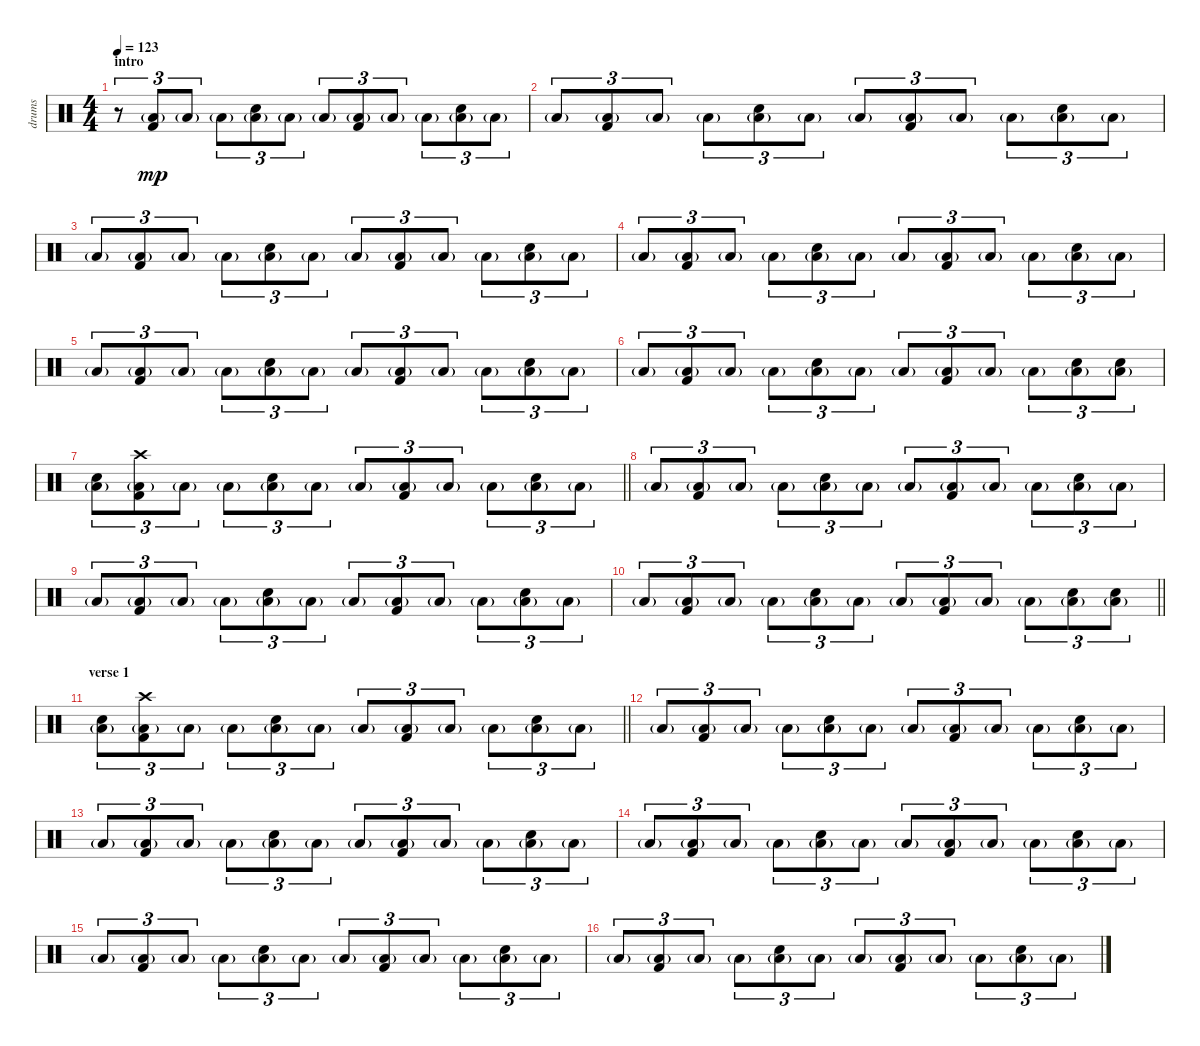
\track ("drums" "drums") {instrument percussion}
\staff {score}
\articulation defaults
\ts (4 4)
\section ("" "intro")
\tempo 123
\clef neutral
\ks c
r.8{tu (3 2) dy mp} ("Low Floor Tom (hit)"{g} "Kick (hit) 2").8{tu (3 2)} "Low Floor Tom (hit)"{g}.8{tu (3 2)} "Low Floor Tom (hit)"{g}.8{tu (3 2)} ("Low Floor Tom (hit)"{g} "Electric Snare (hit)").8{tu (3 2)} "Low Floor Tom (hit)"{g}.8{tu (3 2)} "Low Floor Tom (hit)"{g}.8{tu (3 2)} ("Low Floor Tom (hit)"{g} "Kick (hit) 2").8{tu (3 2)} "Low Floor Tom (hit)"{g}.8{tu (3 2)} "Low Floor Tom (hit)"{g}.8{tu (3 2)} ("Low Floor Tom (hit)"{g} "Electric Snare (hit)").8{tu (3 2)} "Low Floor Tom (hit)"{g}.8{tu (3 2)} |
"Low Floor Tom (hit)"{g}.8{tu (3 2)} ("Low Floor Tom (hit)"{g} "Kick (hit) 2").8{tu (3 2)} "Low Floor Tom (hit)"{g}.8{tu (3 2)} "Low Floor Tom (hit)"{g}.8{tu (3 2)} ("Low Floor Tom (hit)"{g} "Electric Snare (hit)").8{tu (3 2)} "Low Floor Tom (hit)"{g}.8{tu (3 2)} "Low Floor Tom (hit)"{g}.8{tu (3 2)} ("Low Floor Tom (hit)"{g} "Kick (hit) 2").8{tu (3 2)} "Low Floor Tom (hit)"{g}.8{tu (3 2)} "Low Floor Tom (hit)"{g}.8{tu (3 2)} ("Low Floor Tom (hit)"{g} "Electric Snare (hit)").8{tu (3 2)} "Low Floor Tom (hit)"{g}.8{tu (3 2)} |
"Low Floor Tom (hit)"{g}.8{tu (3 2)} ("Low Floor Tom (hit)"{g} "Kick (hit) 2").8{tu (3 2)} "Low Floor Tom (hit)"{g}.8{tu (3 2)} "Low Floor Tom (hit)"{g}.8{tu (3 2)} ("Low Floor Tom (hit)"{g} "Electric Snare (hit)").8{tu (3 2)} "Low Floor Tom (hit)"{g}.8{tu (3 2)} "Low Floor Tom (hit)"{g}.8{tu (3 2)} ("Low Floor Tom (hit)"{g} "Kick (hit) 2").8{tu (3 2)} "Low Floor Tom (hit)"{g}.8{tu (3 2)} "Low Floor Tom (hit)"{g}.8{tu (3 2)} ("Low Floor Tom (hit)"{g} "Electric Snare (hit)").8{tu (3 2)} "Low Floor Tom (hit)"{g}.8{tu (3 2)} |
"Low Floor Tom (hit)"{g}.8{tu (3 2)} ("Low Floor Tom (hit)"{g} "Kick (hit) 2").8{tu (3 2)} "Low Floor Tom (hit)"{g}.8{tu (3 2)} "Low Floor Tom (hit)"{g}.8{tu (3 2)} ("Low Floor Tom (hit)"{g} "Electric Snare (hit)").8{tu (3 2)} "Low Floor Tom (hit)"{g}.8{tu (3 2)} "Low Floor Tom (hit)"{g}.8{tu (3 2)} ("Low Floor Tom (hit)"{g} "Kick (hit) 2").8{tu (3 2)} "Low Floor Tom (hit)"{g}.8{tu (3 2)} "Low Floor Tom (hit)"{g}.8{tu (3 2)} ("Low Floor Tom (hit)"{g} "Electric Snare (hit)").8{tu (3 2)} "Low Floor Tom (hit)"{g}.8{tu (3 2)} |
"Low Floor Tom (hit)"{g}.8{tu (3 2)} ("Low Floor Tom (hit)"{g} "Kick (hit) 2").8{tu (3 2)} "Low Floor Tom (hit)"{g}.8{tu (3 2)} "Low Floor Tom (hit)"{g}.8{tu (3 2)} ("Low Floor Tom (hit)"{g} "Electric Snare (hit)").8{tu (3 2)} "Low Floor Tom (hit)"{g}.8{tu (3 2)} "Low Floor Tom (hit)"{g}.8{tu (3 2)} ("Low Floor Tom (hit)"{g} "Kick (hit) 2").8{tu (3 2)} "Low Floor Tom (hit)"{g}.8{tu (3 2)} "Low Floor Tom (hit)"{g}.8{tu (3 2)} ("Low Floor Tom (hit)"{g} "Electric Snare (hit)").8{tu (3 2)} "Low Floor Tom (hit)"{g}.8{tu (3 2)} |
"Low Floor Tom (hit)"{g}.8{tu (3 2)} ("Low Floor Tom (hit)"{g} "Kick (hit) 2").8{tu (3 2)} "Low Floor Tom (hit)"{g}.8{tu (3 2)} "Low Floor Tom (hit)"{g}.8{tu (3 2)} ("Low Floor Tom (hit)"{g} "Electric Snare (hit)").8{tu (3 2)} "Low Floor Tom (hit)"{g}.8{tu (3 2)} "Low Floor Tom (hit)"{g}.8{tu (3 2)} ("Low Floor Tom (hit)"{g} "Kick (hit) 2").8{tu (3 2)} "Low Floor Tom (hit)"{g}.8{tu (3 2)} "Low Floor Tom (hit)"{g}.8{tu (3 2)} ("Low Floor Tom (hit)"{g} "Electric Snare (hit)").8{tu (3 2)} ("Low Floor Tom (hit)"{g} "Electric Snare (hit)").8{tu (3 2)} |
\barLineRight lightlight
("Low Floor Tom (hit)"{g} "Electric Snare (hit)").8{tu (3 2)} ("Low Floor Tom (hit)"{g} "Kick (hit) 2" "Crash high (hit)").8{tu (3 2)} "Low Floor Tom (hit)"{g}.8{tu (3 2)} "Low Floor Tom (hit)"{g}.8{tu (3 2)} ("Low Floor Tom (hit)"{g} "Electric Snare (hit)").8{tu (3 2)} "Low Floor Tom (hit)"{g}.8{tu (3 2)} "Low Floor Tom (hit)"{g}.8{tu (3 2)} ("Low Floor Tom (hit)"{g} "Kick (hit) 2").8{tu (3 2)} "Low Floor Tom (hit)"{g}.8{tu (3 2)} "Low Floor Tom (hit)"{g}.8{tu (3 2)} ("Low Floor Tom (hit)"{g} "Electric Snare (hit)").8{tu (3 2)} "Low Floor Tom (hit)"{g}.8{tu (3 2)} |
"Low Floor Tom (hit)"{g}.8{tu (3 2)} ("Low Floor Tom (hit)"{g} "Kick (hit) 2").8{tu (3 2)} "Low Floor Tom (hit)"{g}.8{tu (3 2)} "Low Floor Tom (hit)"{g}.8{tu (3 2)} ("Low Floor Tom (hit)"{g} "Electric Snare (hit)").8{tu (3 2)} "Low Floor Tom (hit)"{g}.8{tu (3 2)} "Low Floor Tom (hit)"{g}.8{tu (3 2)} ("Low Floor Tom (hit)"{g} "Kick (hit) 2").8{tu (3 2)} "Low Floor Tom (hit)"{g}.8{tu (3 2)} "Low Floor Tom (hit)"{g}.8{tu (3 2)} ("Low Floor Tom (hit)"{g} "Electric Snare (hit)").8{tu (3 2)} "Low Floor Tom (hit)"{g}.8{tu (3 2)} |
"Low Floor Tom (hit)"{g}.8{tu (3 2)} ("Low Floor Tom (hit)"{g} "Kick (hit) 2").8{tu (3 2)} "Low Floor Tom (hit)"{g}.8{tu (3 2)} "Low Floor Tom (hit)"{g}.8{tu (3 2)} ("Low Floor Tom (hit)"{g} "Electric Snare (hit)").8{tu (3 2)} "Low Floor Tom (hit)"{g}.8{tu (3 2)} "Low Floor Tom (hit)"{g}.8{tu (3 2)} ("Low Floor Tom (hit)"{g} "Kick (hit) 2").8{tu (3 2)} "Low Floor Tom (hit)"{g}.8{tu (3 2)} "Low Floor Tom (hit)"{g}.8{tu (3 2)} ("Low Floor Tom (hit)"{g} "Electric Snare (hit)").8{tu (3 2)} "Low Floor Tom (hit)"{g}.8{tu (3 2)} |
\barLineRight lightlight "Low Floor Tom (hit)"{g}.8{tu (3 2)}
("Low Floor Tom (hit)"{g} "Kick (hit) 2").8{tu (3 2)} "Low Floor Tom (hit)"{g}.8{tu (3 2)} "Low Floor Tom (hit)"{g}.8{tu (3 2)} ("Low Floor Tom (hit)"{g} "Electric Snare (hit)").8{tu (3 2)} "Low Floor Tom (hit)"{g}.8{tu (3 2)} "Low Floor Tom (hit)"{g}.8{tu (3 2)} ("Low Floor Tom (hit)"{g} "Kick (hit) 2").8{tu (3 2)} "Low Floor Tom (hit)"{g}.8{tu (3 2)} "Low Floor Tom (hit)"{g}.8{tu (3 2)} ("Low Floor Tom (hit)"{g} "Electric Snare (hit)").8{tu (3 2)} ("Low Floor Tom (hit)"{g} "Electric Snare (hit)").8{tu (3 2)} |
\section ("" "verse 1 ")
\barLineRight lightlight
("Low Floor Tom (hit)"{g} "Electric Snare (hit)").8{tu (3 2)} ("Low Floor Tom (hit)"{g} "Kick (hit) 2" "Crash high (hit)").8{tu (3 2)} "Low Floor Tom (hit)"{g}.8{tu (3 2)} "Low Floor Tom (hit)"{g}.8{tu (3 2)} ("Low Floor Tom (hit)"{g} "Electric Snare (hit)").8{tu (3 2)} "Low Floor Tom (hit)"{g}.8{tu (3 2)} "Low Floor Tom (hit)"{g}.8{tu (3 2)} ("Low Floor Tom (hit)"{g} "Kick (hit) 2").8{tu (3 2)} "Low Floor Tom (hit)"{g}.8{tu (3 2)} "Low Floor Tom (hit)"{g}.8{tu (3 2)} ("Low Floor Tom (hit)"{g} "Electric Snare (hit)").8{tu (3 2)} "Low Floor Tom (hit)"{g}.8{tu (3 2)} |
"Low Floor Tom (hit)"{g}.8{tu (3 2)} ("Low Floor Tom (hit)"{g} "Kick (hit) 2").8{tu (3 2)} "Low Floor Tom (hit)"{g}.8{tu (3 2)} "Low Floor Tom (hit)"{g}.8{tu (3 2)} ("Low Floor Tom (hit)"{g} "Electric Snare (hit)").8{tu (3 2)} "Low Floor Tom (hit)"{g}.8{tu (3 2)} "Low Floor Tom (hit)"{g}.8{tu (3 2)} ("Low Floor Tom (hit)"{g} "Kick (hit) 2").8{tu (3 2)} "Low Floor Tom (hit)"{g}.8{tu (3 2)} "Low Floor Tom (hit)"{g}.8{tu (3 2)} ("Low Floor Tom (hit)"{g} "Electric Snare (hit)").8{tu (3 2)} "Low Floor Tom (hit)"{g}.8{tu (3 2)} |
"Low Floor Tom (hit)"{g}.8{tu (3 2)} ("Low Floor Tom (hit)"{g} "Kick (hit) 2").8{tu (3 2)} "Low Floor Tom (hit)"{g}.8{tu (3 2)} "Low Floor Tom (hit)"{g}.8{tu (3 2)} ("Low Floor Tom (hit)"{g} "Electric Snare (hit)").8{tu (3 2)} "Low Floor Tom (hit)"{g}.8{tu (3 2)} "Low Floor Tom (hit)"{g}.8{tu (3 2)} ("Low Floor Tom (hit)"{g} "Kick (hit) 2").8{tu (3 2)} "Low Floor Tom (hit)"{g}.8{tu (3 2)} "Low Floor Tom (hit)"{g}.8{tu (3 2)} ("Low Floor Tom (hit)"{g} "Electric Snare (hit)").8{tu (3 2)} "Low Floor Tom (hit)"{g}.8{tu (3 2)} |
"Low Floor Tom (hit)"{g}.8{tu (3 2)} ("Low Floor Tom (hit)"{g} "Kick (hit) 2").8{tu (3 2)} "Low Floor Tom (hit)"{g}.8{tu (3 2)} "Low Floor Tom (hit)"{g}.8{tu (3 2)} ("Low Floor Tom (hit)"{g} "Electric Snare (hit)").8{tu (3 2)} "Low Floor Tom (hit)"{g}.8{tu (3 2)} "Low Floor Tom (hit)"{g}.8{tu (3 2)} ("Low Floor Tom (hit)"{g} "Kick (hit) 2").8{tu (3 2)} "Low Floor Tom (hit)"{g}.8{tu (3 2)} "Low Floor Tom (hit)"{g}.8{tu (3 2)} ("Low Floor Tom (hit)"{g} "Electric Snare (hit)").8{tu (3 2)} "Low Floor Tom (hit)"{g}.8{tu (3 2)} |
"Low Floor Tom (hit)"{g}.8{tu (3 2)} ("Low Floor Tom (hit)"{g} "Kick (hit) 2").8{tu (3 2)} "Low Floor Tom (hit)"{g}.8{tu (3 2)} "Low Floor Tom (hit)"{g}.8{tu (3 2)} ("Low Floor Tom (hit)"{g} "Electric Snare (hit)").8{tu (3 2)} "Low Floor Tom (hit)"{g}.8{tu (3 2)} "Low Floor Tom (hit)"{g}.8{tu (3 2)} ("Low Floor Tom (hit)"{g} "Kick (hit) 2").8{tu (3 2)} "Low Floor Tom (hit)"{g}.8{tu (3 2)} "Low Floor Tom (hit)"{g}.8{tu (3 2)} ("Low Floor Tom (hit)"{g} "Electric Snare (hit)").8{tu (3 2)} "Low Floor Tom (hit)"{g}.8{tu (3 2)} |
"Low Floor Tom (hit)"{g}.8{tu (3 2)} ("Low Floor Tom (hit)"{g} "Kick (hit) 2").8{tu (3 2)} "Low Floor Tom (hit)"{g}.8{tu (3 2)} "Low Floor Tom (hit)"{g}.8{tu (3 2)} ("Low Floor Tom (hit)"{g} "Electric Snare (hit)").8{tu (3 2)} "Low Floor Tom (hit)"{g}.8{tu (3 2)} "Low Floor Tom (hit)"{g}.8{tu (3 2)} ("Low Floor Tom (hit)"{g} "Kick (hit) 2").8{tu (3 2)} "Low Floor Tom (hit)"{g}.8{tu (3 2)} "Low Floor Tom (hit)"{g}.8{tu (3 2)} ("Low Floor Tom (hit)"{g} "Electric Snare (hit)").8{tu (3 2)} "Low Floor Tom (hit)"{g}.8{tu (3 2)}
